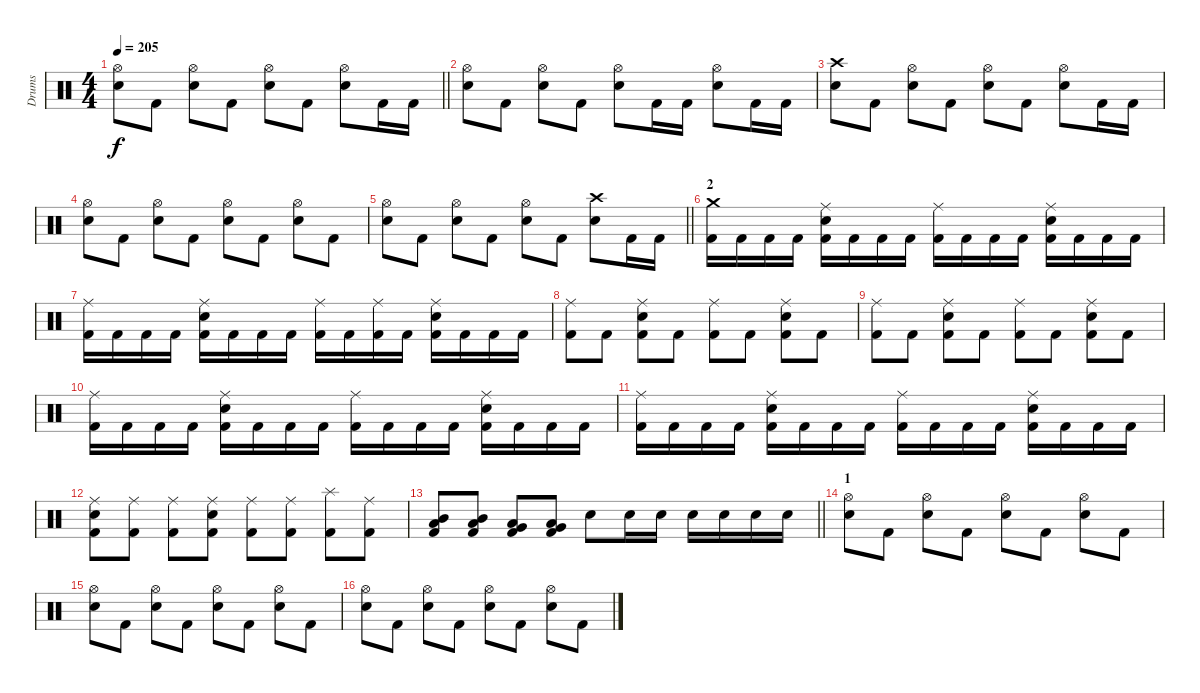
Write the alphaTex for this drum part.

\track ("Drums" "Drums") {instrument percussion}
\staff {score}
\articulation defaults
\ts (4 4)
\tempo 205
\clef neutral
\barLineRight lightlight
\ks c
("Hi-Hat (open)" "Electric Snare (hit)").8{dy f} "Kick (hit) 2".8 ("Hi-Hat (open)" "Electric Snare (hit)").8 "Kick (hit) 2".8 ("Hi-Hat (open)" "Electric Snare (hit)").8 "Kick (hit) 2".8 ("Hi-Hat (open)" "Electric Snare (hit)").8 "Kick (hit) 2".16 "Kick (hit) 2".16 |
("Hi-Hat (open)" "Electric Snare (hit)").8 "Kick (hit) 2".8 ("Hi-Hat (open)" "Electric Snare (hit)").8 "Kick (hit) 2".8 ("Hi-Hat (open)" "Electric Snare (hit)").8 "Kick (hit) 2".16 "Kick (hit) 2".16 ("Hi-Hat (open)" "Electric Snare (hit)").8 "Kick (hit) 2".16 "Kick (hit) 2".16 |
("Crash high (hit)" "Electric Snare (hit)").8 "Kick (hit) 2".8 ("Hi-Hat (open)" "Electric Snare (hit)").8 "Kick (hit) 2".8 ("Hi-Hat (open)" "Electric Snare (hit)").8 "Kick (hit) 2".8 ("Hi-Hat (open)" "Electric Snare (hit)").8 "Kick (hit) 2".16 "Kick (hit) 2".16 |
("Hi-Hat (open)" "Electric Snare (hit)").8 "Kick (hit) 2".8 ("Hi-Hat (open)" "Electric Snare (hit)").8 "Kick (hit) 2".8 ("Hi-Hat (open)" "Electric Snare (hit)").8 "Kick (hit) 2".8 ("Hi-Hat (open)" "Electric Snare (hit)").8 "Kick (hit) 2".8 |
\barLineRight lightlight
("Hi-Hat (open)" "Electric Snare (hit)").8 "Kick (hit) 2".8 ("Hi-Hat (open)" "Electric Snare (hit)").8 "Kick (hit) 2".8 ("Hi-Hat (open)" "Electric Snare (hit)").8 "Kick (hit) 2".8 ("Crash high (hit)" "Electric Snare (hit)").8 "Kick (hit) 2".16 "Kick (hit) 2".16 |
\section ("" "2")
("Crash medium (hit)" "Kick (hit) 2").16 "Kick (hit) 2".16 "Kick (hit) 2".16 "Kick (hit) 2".16 ("Ride (middle)" "Electric Snare (hit)" "Kick (hit) 2").16 "Kick (hit) 2".16 "Kick (hit) 2".16 "Kick (hit) 2".16 ("Ride (middle)" "Kick (hit) 2").16 "Kick (hit) 2".16 "Kick (hit) 2".16 "Kick (hit) 2".16 ("Ride (middle)" "Electric Snare (hit)" "Kick (hit) 2").16 "Kick (hit) 2".16 "Kick (hit) 2".16 "Kick (hit) 2".16 |
("Ride (middle)" "Kick (hit) 2").16 "Kick (hit) 2".16 "Kick (hit) 2".16 "Kick (hit) 2".16 ("Ride (middle)" "Electric Snare (hit)" "Kick (hit) 2").16 "Kick (hit) 2".16 "Kick (hit) 2".16 "Kick (hit) 2".16 ("Ride (middle)" "Kick (hit) 2").16 "Kick (hit) 2".16 ("Ride (middle)" "Kick (hit) 2").16 "Kick (hit) 2".16 ("Ride (middle)" "Electric Snare (hit)" "Kick (hit) 2").16 "Kick (hit) 2".16 "Kick (hit) 2".16 "Kick (hit) 2".16 |
("Ride (middle)" "Kick (hit) 2").8 "Kick (hit) 2".8 ("Ride (middle)" "Electric Snare (hit)" "Kick (hit) 2").8 "Kick (hit) 2".8 ("Ride (middle)" "Kick (hit) 2").8 "Kick (hit) 2".8 ("Ride (middle)" "Electric Snare (hit)" "Kick (hit) 2").8 "Kick (hit) 2".8 |
("Ride (middle)" "Kick (hit) 2").8 "Kick (hit) 2".8 ("Ride (middle)" "Electric Snare (hit)" "Kick (hit) 2").8 "Kick (hit) 2".8 ("Ride (middle)" "Kick (hit) 2").8 "Kick (hit) 2".8 ("Ride (middle)" "Electric Snare (hit)" "Kick (hit) 2").8 "Kick (hit) 2".8 |
("Ride (middle)" "Kick (hit) 2").16 "Kick (hit) 2".16 "Kick (hit) 2".16 "Kick (hit) 2".16 ("Ride (middle)" "Electric Snare (hit)" "Kick (hit) 2").16 "Kick (hit) 2".16 "Kick (hit) 2".16 "Kick (hit) 2".16 ("Ride (middle)" "Kick (hit) 2").16 "Kick (hit) 2".16 "Kick (hit) 2".16 "Kick (hit) 2".16 ("Ride (middle)" "Electric Snare (hit)" "Kick (hit) 2").16 "Kick (hit) 2".16 "Kick (hit) 2".16 "Kick (hit) 2".16 |
("Ride (middle)" "Kick (hit) 2").16 "Kick (hit) 2".16 "Kick (hit) 2".16 "Kick (hit) 2".16 ("Ride (middle)" "Electric Snare (hit)" "Kick (hit) 2").16 "Kick (hit) 2".16 "Kick (hit) 2".16 "Kick (hit) 2".16 ("Ride (middle)" "Kick (hit) 2").16 "Kick (hit) 2".16 "Kick (hit) 2".16 "Kick (hit) 2".16 ("Ride (middle)" "Electric Snare (hit)" "Kick (hit) 2").16 "Kick (hit) 2".16 "Kick (hit) 2".16 "Kick (hit) 2".16 |
("Ride (middle)" "Electric Snare (hit)" "Kick (hit) 2").8 ("Ride (middle)" "Kick (hit) 2").8 ("Ride (middle)" "Kick (hit) 2").8 ("Ride (middle)" "Electric Snare (hit)" "Kick (hit) 2").8 ("Ride (middle)" "Kick (hit) 2").8 ("Ride (middle)" "Kick (hit) 2").8 ("Splash (hit)" "Kick (hit) 2").8 ("Ride (middle)" "Kick (hit) 2").8 |
\barLineRight lightlight
("Mid Tom (hit)" "Low Tom (hit)" "Kick (hit) 2").8 ("Mid Tom (hit)" "Low Tom (hit)" "Kick (hit) 2").8 ("Low Tom (hit)" "Very Low Tom (hit)" "Kick (hit) 2").8 ("Low Tom (hit)" "Very Low Tom (hit)" "Kick (hit) 2").8 "Electric Snare (hit)".8 "Electric Snare (hit)".16 "Electric Snare (hit)".16 "Electric Snare (hit)".16 "Electric Snare (hit)".16 "Electric Snare (hit)".16 "Electric Snare (hit)".16 |
\section ("" "1")
("Hi-Hat (open)" "Electric Snare (hit)").8 "Kick (hit) 2".8 ("Hi-Hat (open)" "Electric Snare (hit)").8 "Kick (hit) 2".8 ("Hi-Hat (open)" "Electric Snare (hit)").8 "Kick (hit) 2".8 ("Hi-Hat (open)" "Electric Snare (hit)").8 "Kick (hit) 2".8 |
("Hi-Hat (open)" "Electric Snare (hit)").8 "Kick (hit) 2".8 ("Hi-Hat (open)" "Electric Snare (hit)").8 "Kick (hit) 2".8 ("Hi-Hat (open)" "Electric Snare (hit)").8 "Kick (hit) 2".8 ("Hi-Hat (open)" "Electric Snare (hit)").8 "Kick (hit) 2".8 |
("Hi-Hat (open)" "Electric Snare (hit)").8 "Kick (hit) 2".8 ("Hi-Hat (open)" "Electric Snare (hit)").8 "Kick (hit) 2".8 ("Hi-Hat (open)" "Electric Snare (hit)").8 "Kick (hit) 2".8 ("Hi-Hat (open)" "Electric Snare (hit)").8 "Kick (hit) 2".8
